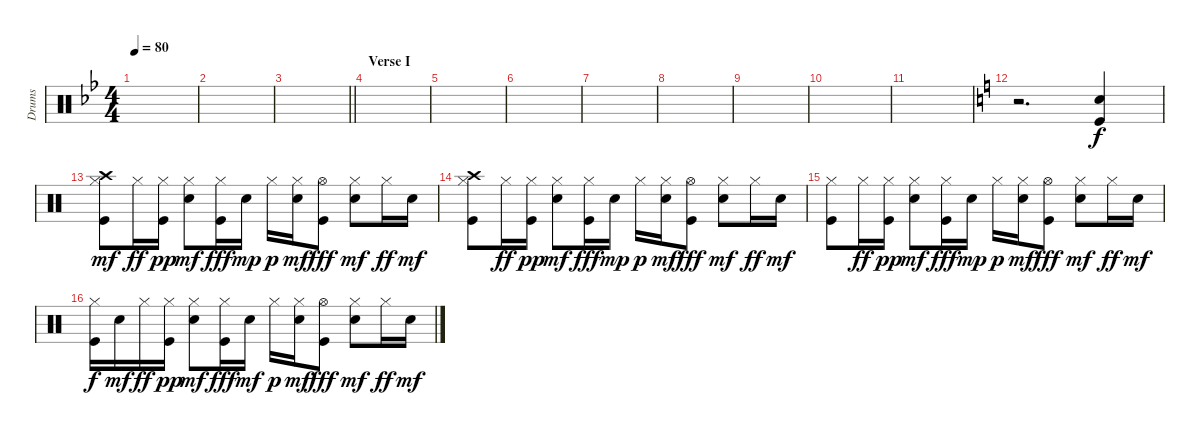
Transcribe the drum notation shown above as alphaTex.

\track ("Drums" "Drums") {instrument percussion}
\staff {score}
\articulation defaults
\ts (4 4)
\tempo 80
\clef neutral
\ks bb
|
|
\barLineRight lightlight
|
\section ("" "Verse I")
|
|
|
|
|
|
|
|
\ks c
r.2{d} ("Kick (hit)" "Snare (hit) 2").4 |
("Kick (hit)" "Crash high (hit)" "Hi-Hat (closed)").8{dy mf} "Hi-Hat (closed)".16{dy ff} ("Kick (hit)" "Hi-Hat (closed)").16{dy pp} ("Snare (hit) 2" "Hi-Hat (closed)").8{dy mf} ("Kick (hit)" "Hi-Hat (closed)").16{dy fff} "Snare (hit) 2".16{dy mp} "Hi-Hat (closed)".16{dy p} ("Snare (hit) 2" "Hi-Hat (closed)").16{dy mf} ("Kick (hit)" "Hi-Hat (open)").8{dy fff} ("Snare (hit) 2" "Hi-Hat (closed)").8{dy mf} "Hi-Hat (closed)".16{dy ff} "Snare (hit) 2".16{dy mf} |
("Kick (hit)" "Crash high (hit)" "Hi-Hat (closed)").8 "Hi-Hat (closed)".16{dy ff} ("Kick (hit)" "Hi-Hat (closed)").16{dy pp} ("Snare (hit) 2" "Hi-Hat (closed)").8{dy mf} ("Kick (hit)" "Hi-Hat (closed)").16{dy fff} "Snare (hit) 2".16{dy mp} "Hi-Hat (closed)".16{dy p} ("Snare (hit) 2" "Hi-Hat (closed)").16{dy mf} ("Kick (hit)" "Hi-Hat (open)").8{dy fff} ("Snare (hit) 2" "Hi-Hat (closed)").8{dy mf} "Hi-Hat (closed)".16{dy ff} "Snare (hit) 2".16{dy mf} |
("Kick (hit)" "Hi-Hat (closed)").8 "Hi-Hat (closed)".16{dy ff} ("Kick (hit)" "Hi-Hat (closed)").16{dy pp} ("Snare (hit) 2" "Hi-Hat (closed)").8{dy mf} ("Kick (hit)" "Hi-Hat (closed)").16{dy fff} "Snare (hit) 2".16{dy mp} "Hi-Hat (closed)".16{dy p} ("Snare (hit) 2" "Hi-Hat (closed)").16{dy mf} ("Kick (hit)" "Hi-Hat (open)").8{dy fff} ("Snare (hit) 2" "Hi-Hat (closed)").8{dy mf} "Hi-Hat (closed)".16{dy ff} "Snare (hit) 2".16{dy mf} |
("Hi-Hat (closed)" "Kick (hit)").16{dy f} "Snare (hit) 2".16{dy mf} "Hi-Hat (closed)".16{dy ff} ("Kick (hit)" "Hi-Hat (closed)").16{dy pp} ("Snare (hit) 2" "Hi-Hat (closed)").8{dy mf} ("Kick (hit)" "Hi-Hat (closed)").16{dy fff} "Snare (hit) 2".16{dy mf} "Hi-Hat (closed)".16{dy p} ("Snare (hit) 2" "Hi-Hat (closed)").16{dy mf} ("Kick (hit)" "Hi-Hat (open)").8{dy fff} ("Snare (hit) 2" "Hi-Hat (closed)").8{dy mf} "Hi-Hat (closed)".16{dy ff} "Snare (hit) 2".16{dy mf}
